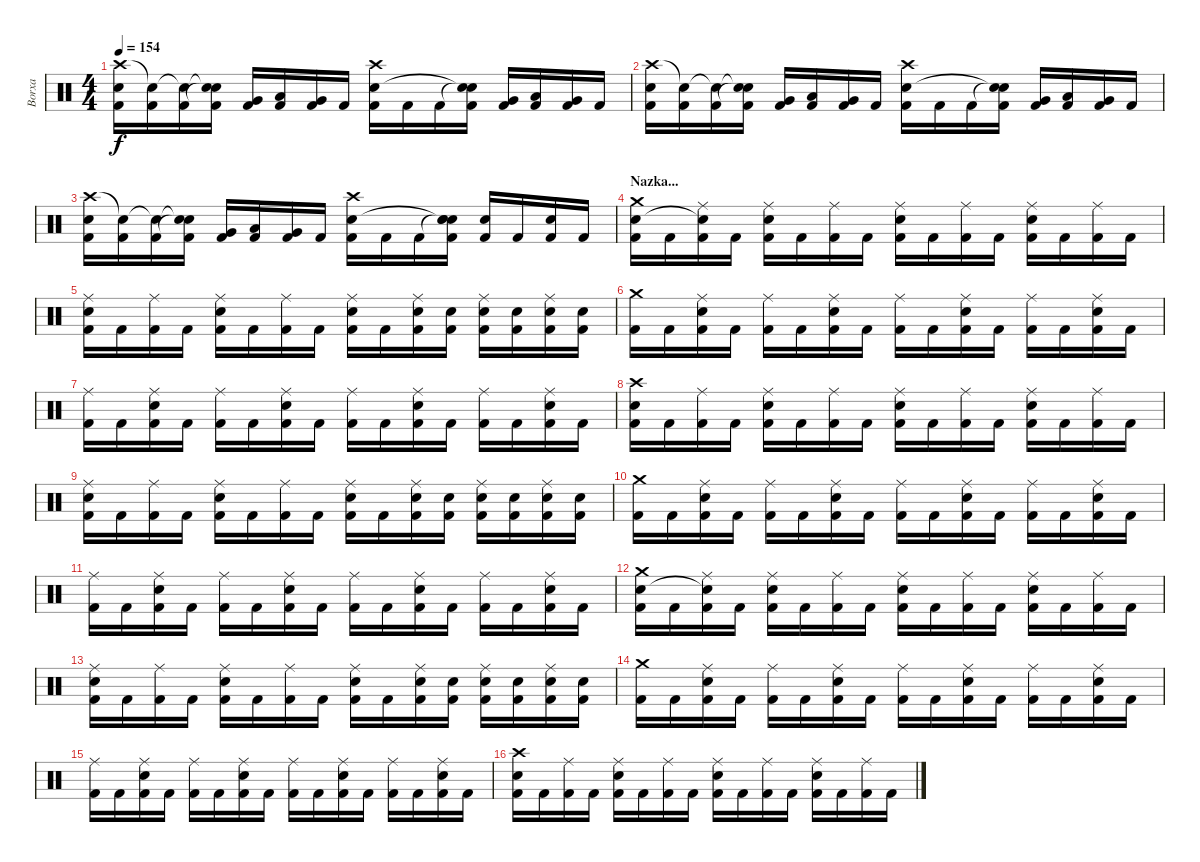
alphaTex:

\track ("Borxa" "Borxa") {instrument percussion}
\staff {score}
\articulation defaults
\ts (4 4)
\tempo 154
\clef neutral
\ks c
("Crash high (hit)" "Snare (hit) 2" "Kick (hit) 2").16{dy f} ("Snare (hit)"{t} "Kick (hit) 2").16 ("Snare (hit)"{t} "Kick (hit) 2").16 ("Snare (hit)"{t} "Snare (hit)"{t} "Kick (hit) 2").16 ("Very Low Tom (hit)" "Kick (hit) 2").16 ("Low Tom (hit)" "Kick (hit) 2").16 ("Very Low Tom (hit)" "Kick (hit) 2").16 "Kick (hit) 2".16 ("Crash high (hit)" "Snare (hit) 2" "Kick (hit) 2").16 "Kick (hit) 2".16 "Kick (hit) 2".16 ("Snare (hit)"{t} "Snare (hit)"{t} "Kick (hit) 2").16 ("Very Low Tom (hit)" "Kick (hit) 2").16 ("Low Tom (hit)" "Kick (hit) 2").16 ("Very Low Tom (hit)" "Kick (hit) 2").16 "Kick (hit) 2".16 |
("Crash high (hit)" "Snare (hit) 2" "Kick (hit) 2").16 ("Snare (hit)"{t} "Kick (hit) 2").16 ("Snare (hit)"{t} "Kick (hit) 2").16 ("Snare (hit)"{t} "Snare (hit)"{t} "Kick (hit) 2").16 ("Very Low Tom (hit)" "Kick (hit) 2").16 ("Low Tom (hit)" "Kick (hit) 2").16 ("Very Low Tom (hit)" "Kick (hit) 2").16 "Kick (hit) 2".16 ("Crash high (hit)" "Snare (hit) 2" "Kick (hit) 2").16 "Kick (hit) 2".16 "Kick (hit) 2".16 ("Snare (hit)"{t} "Snare (hit)"{t} "Kick (hit) 2").16 ("Very Low Tom (hit)" "Kick (hit) 2").16 ("Low Tom (hit)" "Kick (hit) 2").16 ("Very Low Tom (hit)" "Kick (hit) 2").16 "Kick (hit) 2".16 |
("Crash high (hit)" "Snare (hit) 2" "Kick (hit) 2").16 ("Snare (hit)"{t} "Kick (hit) 2").16 ("Snare (hit)"{t} "Kick (hit) 2").16 ("Snare (hit)"{t} "Snare (hit)"{t} "Kick (hit) 2").16 ("Very Low Tom (hit)" "Kick (hit) 2").16 ("Low Tom (hit)" "Kick (hit) 2").16 ("Very Low Tom (hit)" "Kick (hit) 2").16 "Kick (hit) 2".16 ("Crash high (hit)" "Snare (hit) 2" "Kick (hit) 2").16 "Kick (hit) 2".16 "Kick (hit) 2".16 ("Snare (hit)"{t} "Snare (hit)"{t} "Snare (hit) 2" "Kick (hit) 2").16 ("Snare (hit) 2" "Kick (hit) 2").16 "Kick (hit) 2".16 ("Snare (hit) 2" "Kick (hit) 2").16 "Kick (hit) 2".16 |
\section ("" "Nazka...")
("Crash medium (hit)" "Electric Snare (hit)" "Kick (hit) 2").16 "Kick (hit) 2".16 ("Ride (middle)" "Snare (hit)"{t} "Kick (hit) 2").16 "Kick (hit) 2".16 ("Ride (middle)" "Electric Snare (hit)" "Kick (hit) 2").16 "Kick (hit) 2".16 ("Ride (middle)" "Kick (hit) 2").16 "Kick (hit) 2".16 ("Ride (middle)" "Electric Snare (hit)" "Kick (hit) 2").16 "Kick (hit) 2".16 ("Ride (middle)" "Kick (hit) 2").16 "Kick (hit) 2".16 ("Ride (middle)" "Electric Snare (hit)" "Kick (hit) 2").16 "Kick (hit) 2".16 ("Ride (middle)" "Kick (hit) 2").16 "Kick (hit) 2".16 |
("Ride (middle)" "Electric Snare (hit)" "Kick (hit) 2").16 "Kick (hit) 2".16 ("Ride (middle)" "Kick (hit) 2").16 "Kick (hit) 2".16 ("Ride (middle)" "Electric Snare (hit)" "Kick (hit) 2").16 "Kick (hit) 2".16 ("Ride (middle)" "Kick (hit) 2").16 "Kick (hit) 2".16 ("Ride (middle)" "Electric Snare (hit)" "Kick (hit) 2").16 "Kick (hit) 2".16 ("Ride (middle)" "Electric Snare (hit)" "Kick (hit) 2").16 ("Electric Snare (hit)" "Kick (hit) 2").16 ("Ride (middle)" "Electric Snare (hit)" "Kick (hit) 2").16 ("Electric Snare (hit)" "Kick (hit) 2").16 ("Ride (middle)" "Electric Snare (hit)" "Kick (hit) 2").16 ("Electric Snare (hit)" "Kick (hit) 2").16 |
("Crash medium (hit)" "Kick (hit) 2").16 "Kick (hit) 2".16 ("Ride (middle)" "Electric Snare (hit)" "Kick (hit) 2").16 "Kick (hit) 2".16 ("Ride (middle)" "Kick (hit) 2").16 "Kick (hit) 2".16 ("Ride (middle)" "Electric Snare (hit)" "Kick (hit) 2").16 "Kick (hit) 2".16 ("Ride (middle)" "Kick (hit) 2").16 "Kick (hit) 2".16 ("Ride (middle)" "Electric Snare (hit)" "Kick (hit) 2").16 "Kick (hit) 2".16 ("Ride (middle)" "Kick (hit) 2").16 "Kick (hit) 2".16 ("Ride (middle)" "Electric Snare (hit)" "Kick (hit) 2").16 "Kick (hit) 2".16 |
("Ride (middle)" "Kick (hit) 2").16 "Kick (hit) 2".16 ("Ride (middle)" "Electric Snare (hit)" "Kick (hit) 2").16 "Kick (hit) 2".16 ("Ride (middle)" "Kick (hit) 2").16 "Kick (hit) 2".16 ("Ride (middle)" "Electric Snare (hit)" "Kick (hit) 2").16 "Kick (hit) 2".16 ("Ride (middle)" "Kick (hit) 2").16 "Kick (hit) 2".16 ("Ride (middle)" "Electric Snare (hit)" "Kick (hit) 2").16 "Kick (hit) 2".16 ("Ride (middle)" "Kick (hit) 2").16 "Kick (hit) 2".16 ("Ride (middle)" "Electric Snare (hit)" "Kick (hit) 2").16 "Kick (hit) 2".16 |
("Crash high (hit)" "Electric Snare (hit)" "Kick (hit) 2").16 "Kick (hit) 2".16 ("Ride (middle)" "Kick (hit) 2").16 "Kick (hit) 2".16 ("Ride (middle)" "Electric Snare (hit)" "Kick (hit) 2").16 "Kick (hit) 2".16 ("Ride (middle)" "Kick (hit) 2").16 "Kick (hit) 2".16 ("Ride (middle)" "Electric Snare (hit)" "Kick (hit) 2").16 "Kick (hit) 2".16 ("Ride (middle)" "Kick (hit) 2").16 "Kick (hit) 2".16 ("Ride (middle)" "Electric Snare (hit)" "Kick (hit) 2").16 "Kick (hit) 2".16 ("Ride (middle)" "Kick (hit) 2").16 "Kick (hit) 2".16 |
("Ride (middle)" "Electric Snare (hit)" "Kick (hit) 2").16 "Kick (hit) 2".16 ("Ride (middle)" "Kick (hit) 2").16 "Kick (hit) 2".16 ("Ride (middle)" "Electric Snare (hit)" "Kick (hit) 2").16 "Kick (hit) 2".16 ("Ride (middle)" "Kick (hit) 2").16 "Kick (hit) 2".16 ("Ride (middle)" "Electric Snare (hit)" "Kick (hit) 2").16 "Kick (hit) 2".16 ("Ride (middle)" "Electric Snare (hit)" "Kick (hit) 2").16 ("Electric Snare (hit)" "Kick (hit) 2").16 ("Ride (middle)" "Electric Snare (hit)" "Kick (hit) 2").16 ("Electric Snare (hit)" "Kick (hit) 2").16 ("Ride (middle)" "Electric Snare (hit)" "Kick (hit) 2").16 ("Electric Snare (hit)" "Kick (hit) 2").16 |
("Crash medium (hit)" "Kick (hit) 2").16 "Kick (hit) 2".16 ("Ride (middle)" "Electric Snare (hit)" "Kick (hit) 2").16 "Kick (hit) 2".16 ("Ride (middle)" "Kick (hit) 2").16 "Kick (hit) 2".16 ("Ride (middle)" "Electric Snare (hit)" "Kick (hit) 2").16 "Kick (hit) 2".16 ("Ride (middle)" "Kick (hit) 2").16 "Kick (hit) 2".16 ("Ride (middle)" "Electric Snare (hit)" "Kick (hit) 2").16 "Kick (hit) 2".16 ("Ride (middle)" "Kick (hit) 2").16 "Kick (hit) 2".16 ("Ride (middle)" "Electric Snare (hit)" "Kick (hit) 2").16 "Kick (hit) 2".16 |
("Ride (middle)" "Kick (hit) 2").16 "Kick (hit) 2".16 ("Ride (middle)" "Electric Snare (hit)" "Kick (hit) 2").16 "Kick (hit) 2".16 ("Ride (middle)" "Kick (hit) 2").16 "Kick (hit) 2".16 ("Ride (middle)" "Electric Snare (hit)" "Kick (hit) 2").16 "Kick (hit) 2".16 ("Ride (middle)" "Kick (hit) 2").16 "Kick (hit) 2".16 ("Ride (middle)" "Electric Snare (hit)" "Kick (hit) 2").16 "Kick (hit) 2".16 ("Ride (middle)" "Kick (hit) 2").16 "Kick (hit) 2".16 ("Ride (middle)" "Electric Snare (hit)" "Kick (hit) 2").16 "Kick (hit) 2".16 |
("Crash medium (hit)" "Electric Snare (hit)" "Kick (hit) 2").16 "Kick (hit) 2".16 ("Ride (middle)" "Snare (hit)"{t} "Kick (hit) 2").16 "Kick (hit) 2".16 ("Ride (middle)" "Electric Snare (hit)" "Kick (hit) 2").16 "Kick (hit) 2".16 ("Ride (middle)" "Kick (hit) 2").16 "Kick (hit) 2".16 ("Ride (middle)" "Electric Snare (hit)" "Kick (hit) 2").16 "Kick (hit) 2".16 ("Ride (middle)" "Kick (hit) 2").16 "Kick (hit) 2".16 ("Ride (middle)" "Electric Snare (hit)" "Kick (hit) 2").16 "Kick (hit) 2".16 ("Ride (middle)" "Kick (hit) 2").16 "Kick (hit) 2".16 |
("Ride (middle)" "Electric Snare (hit)" "Kick (hit) 2").16 "Kick (hit) 2".16 ("Ride (middle)" "Kick (hit) 2").16 "Kick (hit) 2".16 ("Ride (middle)" "Electric Snare (hit)" "Kick (hit) 2").16 "Kick (hit) 2".16 ("Ride (middle)" "Kick (hit) 2").16 "Kick (hit) 2".16 ("Ride (middle)" "Electric Snare (hit)" "Kick (hit) 2").16 "Kick (hit) 2".16 ("Ride (middle)" "Electric Snare (hit)" "Kick (hit) 2").16 ("Electric Snare (hit)" "Kick (hit) 2").16 ("Ride (middle)" "Electric Snare (hit)" "Kick (hit) 2").16 ("Electric Snare (hit)" "Kick (hit) 2").16 ("Ride (middle)" "Electric Snare (hit)" "Kick (hit) 2").16 ("Electric Snare (hit)" "Kick (hit) 2").16 |
("Crash medium (hit)" "Kick (hit) 2").16 "Kick (hit) 2".16 ("Ride (middle)" "Electric Snare (hit)" "Kick (hit) 2").16 "Kick (hit) 2".16 ("Ride (middle)" "Kick (hit) 2").16 "Kick (hit) 2".16 ("Ride (middle)" "Electric Snare (hit)" "Kick (hit) 2").16 "Kick (hit) 2".16 ("Ride (middle)" "Kick (hit) 2").16 "Kick (hit) 2".16 ("Ride (middle)" "Electric Snare (hit)" "Kick (hit) 2").16 "Kick (hit) 2".16 ("Ride (middle)" "Kick (hit) 2").16 "Kick (hit) 2".16 ("Ride (middle)" "Electric Snare (hit)" "Kick (hit) 2").16 "Kick (hit) 2".16 |
("Ride (middle)" "Kick (hit) 2").16 "Kick (hit) 2".16 ("Ride (middle)" "Electric Snare (hit)" "Kick (hit) 2").16 "Kick (hit) 2".16 ("Ride (middle)" "Kick (hit) 2").16 "Kick (hit) 2".16 ("Ride (middle)" "Electric Snare (hit)" "Kick (hit) 2").16 "Kick (hit) 2".16 ("Ride (middle)" "Kick (hit) 2").16 "Kick (hit) 2".16 ("Ride (middle)" "Electric Snare (hit)" "Kick (hit) 2").16 "Kick (hit) 2".16 ("Ride (middle)" "Kick (hit) 2").16 "Kick (hit) 2".16 ("Ride (middle)" "Electric Snare (hit)" "Kick (hit) 2").16 "Kick (hit) 2".16 |
("Crash high (hit)" "Electric Snare (hit)" "Kick (hit) 2").16 "Kick (hit) 2".16 ("Ride (middle)" "Kick (hit) 2").16 "Kick (hit) 2".16 ("Ride (middle)" "Electric Snare (hit)" "Kick (hit) 2").16 "Kick (hit) 2".16 ("Ride (middle)" "Kick (hit) 2").16 "Kick (hit) 2".16 ("Ride (middle)" "Electric Snare (hit)" "Kick (hit) 2").16 "Kick (hit) 2".16 ("Ride (middle)" "Kick (hit) 2").16 "Kick (hit) 2".16 ("Ride (middle)" "Electric Snare (hit)" "Kick (hit) 2").16 "Kick (hit) 2".16 ("Ride (middle)" "Kick (hit) 2").16 "Kick (hit) 2".16
